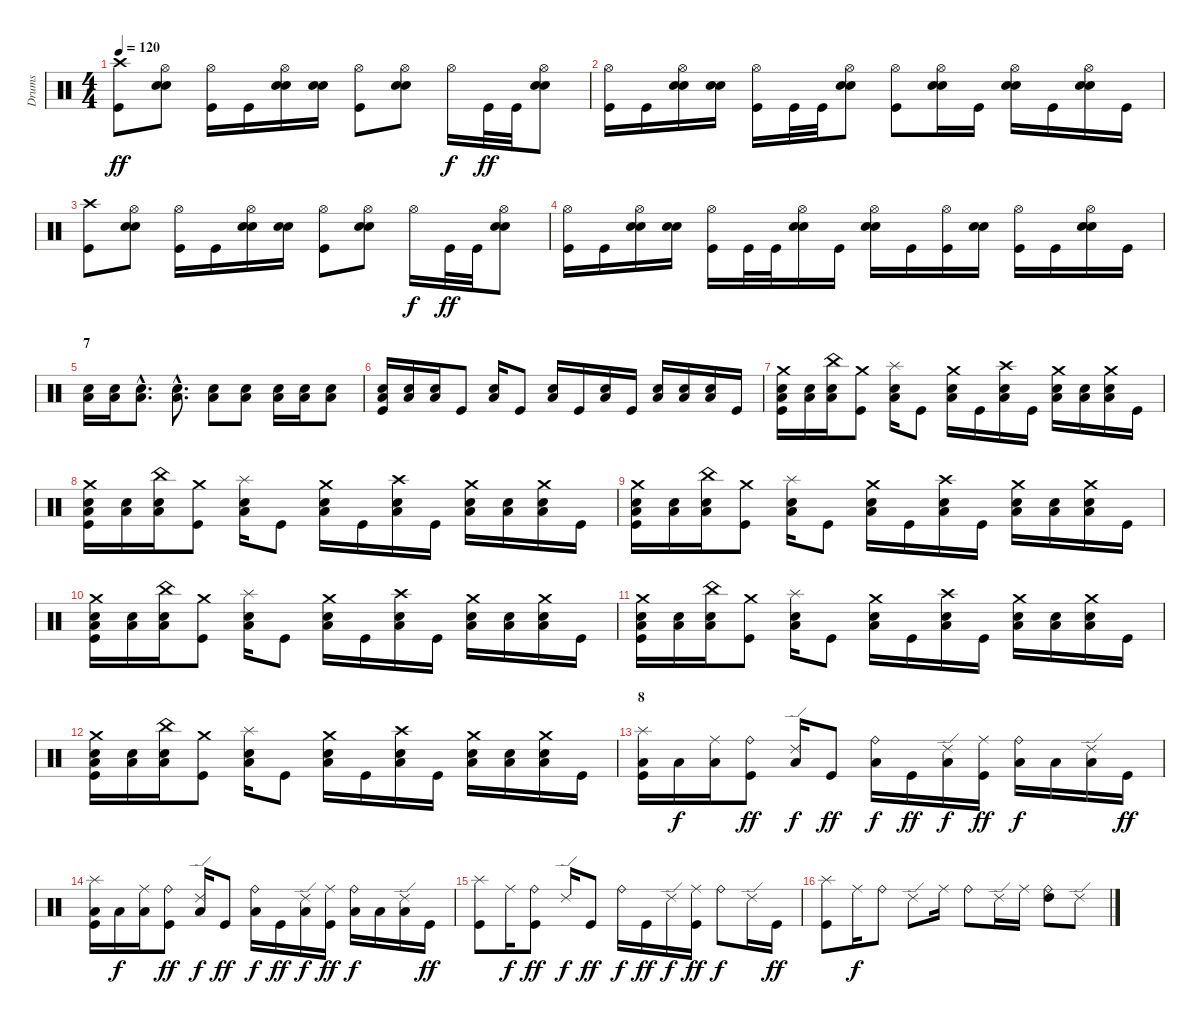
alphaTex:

\track ("Drums" "Drums") {instrument percussion}
\staff {score}
\articulation defaults
\ts (4 4)
\tempo 120
\clef neutral
\ks c
("Kick (hit)" "Crash high (hit)").8{dy ff} ("Electric Snare (hit)" "Electric Snare (hit)" "Hi-Hat (open)").8 ("Kick (hit)" "Hi-Hat (open)").16 "Kick (hit)".16 ("Electric Snare (hit)" "Electric Snare (hit)" "Hi-Hat (open)").16 ("Electric Snare (hit)" "Electric Snare (hit)").16 ("Kick (hit)" "Hi-Hat (open)").8 ("Electric Snare (hit)" "Electric Snare (hit)" "Hi-Hat (open)").8 "Hi-Hat (open)".16{dy f} "Kick (hit)".32{dy ff} "Kick (hit)".32 ("Electric Snare (hit)" "Electric Snare (hit)" "Hi-Hat (open)").8 |
("Kick (hit)" "Hi-Hat (open)").16 "Kick (hit)".16 ("Electric Snare (hit)" "Electric Snare (hit)" "Hi-Hat (open)").16 ("Electric Snare (hit)" "Electric Snare (hit)").16 ("Kick (hit)" "Hi-Hat (open)").16 "Kick (hit)".32 "Kick (hit)".32 ("Electric Snare (hit)" "Electric Snare (hit)" "Hi-Hat (open)").8 ("Kick (hit)" "Hi-Hat (open)").8 ("Electric Snare (hit)" "Electric Snare (hit)" "Hi-Hat (open)").16 "Kick (hit)".16 ("Electric Snare (hit)" "Electric Snare (hit)" "Hi-Hat (open)").16 "Kick (hit)".16 ("Electric Snare (hit)" "Electric Snare (hit)" "Hi-Hat (open)").16 "Kick (hit)".16 |
("Kick (hit)" "Crash high (hit)").8 ("Electric Snare (hit)" "Electric Snare (hit)" "Hi-Hat (open)").8 ("Kick (hit)" "Hi-Hat (open)").16 "Kick (hit)".16 ("Electric Snare (hit)" "Electric Snare (hit)" "Hi-Hat (open)").16 ("Electric Snare (hit)" "Electric Snare (hit)").16 ("Kick (hit)" "Hi-Hat (open)").8 ("Electric Snare (hit)" "Electric Snare (hit)" "Hi-Hat (open)").8 "Hi-Hat (open)".16{dy f} "Kick (hit)".32{dy ff} "Kick (hit)".32 ("Electric Snare (hit)" "Electric Snare (hit)" "Hi-Hat (open)").8 |
("Kick (hit)" "Hi-Hat (open)").16 "Kick (hit)".16 ("Electric Snare (hit)" "Electric Snare (hit)" "Hi-Hat (open)").16 ("Electric Snare (hit)" "Electric Snare (hit)").16 ("Kick (hit)" "Hi-Hat (open)").16 "Kick (hit)".32 "Kick (hit)".32 ("Electric Snare (hit)" "Electric Snare (hit)" "Hi-Hat (open)").16 "Kick (hit)".16 ("Electric Snare (hit)" "Electric Snare (hit)" "Hi-Hat (open)").16 "Kick (hit)".16 ("Kick (hit)" "Hi-Hat (open)").16 ("Electric Snare (hit)" "Electric Snare (hit)").16 ("Kick (hit)" "Hi-Hat (open)").16 "Kick (hit)".16 ("Electric Snare (hit)" "Electric Snare (hit)" "Hi-Hat (open)").16 "Kick (hit)".16 |
\section ("" "7")
("Electric Snare (hit)" "Low Floor Tom (hit)").16 ("Electric Snare (hit)" "Low Floor Tom (hit)").16 ("Electric Snare (hit)"{hac} "Low Floor Tom (hit)"{hac}).8{d} ("Electric Snare (hit)"{hac} "Low Floor Tom (hit)"{hac}).8{d} ("Electric Snare (hit)" "Low Floor Tom (hit)").8 ("Electric Snare (hit)" "Low Floor Tom (hit)").8 ("Electric Snare (hit)" "Low Floor Tom (hit)").16 ("Electric Snare (hit)" "Low Floor Tom (hit)").16 ("Electric Snare (hit)" "Low Floor Tom (hit)").8 |
("Kick (hit)" "Electric Snare (hit)" "Low Floor Tom (hit)").16 ("Electric Snare (hit)" "Low Floor Tom (hit)").16 ("Electric Snare (hit)" "Low Floor Tom (hit)").16 "Kick (hit)".8 ("Electric Snare (hit)" "Low Floor Tom (hit)").16 "Kick (hit)".8 ("Electric Snare (hit)" "Low Floor Tom (hit)").16 "Kick (hit)".16 ("Electric Snare (hit)" "Low Floor Tom (hit)").16 "Kick (hit)".16 ("Electric Snare (hit)" "Low Floor Tom (hit)").16 ("Electric Snare (hit)" "Low Floor Tom (hit)").16 ("Electric Snare (hit)" "Low Floor Tom (hit)").16 "Kick (hit)".16 |
("Kick (hit)" "Electric Snare (hit)" "Low Floor Tom (hit)" "Crash medium (hit)").16 ("Electric Snare (hit)" "Low Floor Tom (hit)").16 ("Electric Snare (hit)" "Low Floor Tom (hit)" "China (hit)").16 ("Kick (hit)" "Crash medium (hit)").8 ("Electric Snare (hit)" "Low Floor Tom (hit)" "Splash (hit)").16 "Kick (hit)".8 ("Electric Snare (hit)" "Low Floor Tom (hit)" "Crash medium (hit)").16 "Kick (hit)".16 ("Electric Snare (hit)" "Low Floor Tom (hit)" "Crash high (hit)").16 "Kick (hit)".16 ("Electric Snare (hit)" "Low Floor Tom (hit)" "Crash medium (hit)").16 ("Electric Snare (hit)" "Low Floor Tom (hit)").16 ("Electric Snare (hit)" "Low Floor Tom (hit)" "Crash medium (hit)").16 "Kick (hit)".16 |
("Kick (hit)" "Electric Snare (hit)" "Low Floor Tom (hit)" "Crash medium (hit)").16 ("Electric Snare (hit)" "Low Floor Tom (hit)").16 ("Electric Snare (hit)" "Low Floor Tom (hit)" "China (hit)").16 ("Kick (hit)" "Crash medium (hit)").8 ("Electric Snare (hit)" "Low Floor Tom (hit)" "Splash (hit)").16 "Kick (hit)".8 ("Electric Snare (hit)" "Low Floor Tom (hit)" "Crash medium (hit)").16 "Kick (hit)".16 ("Electric Snare (hit)" "Low Floor Tom (hit)" "Crash high (hit)").16 "Kick (hit)".16 ("Electric Snare (hit)" "Low Floor Tom (hit)" "Crash medium (hit)").16 ("Electric Snare (hit)" "Low Floor Tom (hit)").16 ("Electric Snare (hit)" "Low Floor Tom (hit)" "Crash medium (hit)").16 "Kick (hit)".16 |
("Kick (hit)" "Electric Snare (hit)" "Low Floor Tom (hit)" "Crash medium (hit)").16 ("Electric Snare (hit)" "Low Floor Tom (hit)").16 ("Electric Snare (hit)" "Low Floor Tom (hit)" "China (hit)").16 ("Kick (hit)" "Crash medium (hit)").8 ("Electric Snare (hit)" "Low Floor Tom (hit)" "Splash (hit)").16 "Kick (hit)".8 ("Electric Snare (hit)" "Low Floor Tom (hit)" "Crash medium (hit)").16 "Kick (hit)".16 ("Electric Snare (hit)" "Low Floor Tom (hit)" "Crash high (hit)").16 "Kick (hit)".16 ("Electric Snare (hit)" "Low Floor Tom (hit)" "Crash medium (hit)").16 ("Electric Snare (hit)" "Low Floor Tom (hit)").16 ("Electric Snare (hit)" "Low Floor Tom (hit)" "Crash medium (hit)").16 "Kick (hit)".16 |
("Kick (hit)" "Electric Snare (hit)" "Low Floor Tom (hit)" "Crash medium (hit)").16 ("Electric Snare (hit)" "Low Floor Tom (hit)").16 ("Electric Snare (hit)" "Low Floor Tom (hit)" "China (hit)").16 ("Kick (hit)" "Crash medium (hit)").8 ("Electric Snare (hit)" "Low Floor Tom (hit)" "Splash (hit)").16 "Kick (hit)".8 ("Electric Snare (hit)" "Low Floor Tom (hit)" "Crash medium (hit)").16 "Kick (hit)".16 ("Electric Snare (hit)" "Low Floor Tom (hit)" "Crash high (hit)").16 "Kick (hit)".16 ("Electric Snare (hit)" "Low Floor Tom (hit)" "Crash medium (hit)").16 ("Electric Snare (hit)" "Low Floor Tom (hit)").16 ("Electric Snare (hit)" "Low Floor Tom (hit)" "Crash medium (hit)").16 "Kick (hit)".16 |
("Kick (hit)" "Electric Snare (hit)" "Low Floor Tom (hit)" "Crash medium (hit)").16 ("Electric Snare (hit)" "Low Floor Tom (hit)").16 ("Electric Snare (hit)" "Low Floor Tom (hit)" "China (hit)").16 ("Kick (hit)" "Crash medium (hit)").8 ("Electric Snare (hit)" "Low Floor Tom (hit)" "Splash (hit)").16 "Kick (hit)".8 ("Electric Snare (hit)" "Low Floor Tom (hit)" "Crash medium (hit)").16 "Kick (hit)".16 ("Electric Snare (hit)" "Low Floor Tom (hit)" "Crash high (hit)").16 "Kick (hit)".16 ("Electric Snare (hit)" "Low Floor Tom (hit)" "Crash medium (hit)").16 ("Electric Snare (hit)" "Low Floor Tom (hit)").16 ("Electric Snare (hit)" "Low Floor Tom (hit)" "Crash medium (hit)").16 "Kick (hit)".16 |
("Kick (hit)" "Electric Snare (hit)" "Low Floor Tom (hit)" "Crash medium (hit)").16 ("Electric Snare (hit)" "Low Floor Tom (hit)").16 ("Electric Snare (hit)" "Low Floor Tom (hit)" "China (hit)").16 ("Kick (hit)" "Crash medium (hit)").8 ("Electric Snare (hit)" "Low Floor Tom (hit)" "Splash (hit)").16 "Kick (hit)".8 ("Electric Snare (hit)" "Low Floor Tom (hit)" "Crash medium (hit)").16 "Kick (hit)".16 ("Electric Snare (hit)" "Low Floor Tom (hit)" "Crash high (hit)").16 "Kick (hit)".16 ("Electric Snare (hit)" "Low Floor Tom (hit)" "Crash medium (hit)").16 ("Electric Snare (hit)" "Low Floor Tom (hit)").16 ("Electric Snare (hit)" "Low Floor Tom (hit)" "Crash medium (hit)").16 "Kick (hit)".16 |
\section ("" "8")
("Kick (hit)" "Low Floor Tom (hit)" "Splash (hit)").16 "Low Floor Tom (hit)".16{dy f} ("Low Floor Tom (hit)" "Ride (middle)").16 ("Kick (hit)" "Ride (bell)").8{dy ff} ("Low Floor Tom (hit)" "Ride (edge) 2").16{dy f} "Kick (hit)".8{dy ff} ("Low Floor Tom (hit)" "Ride (bell)").16{dy f} "Kick (hit)".16{dy ff} ("Low Floor Tom (hit)" "Ride (edge) 2").16{dy f} ("Kick (hit)" "Ride (middle)").16{dy ff} ("Low Floor Tom (hit)" "Ride (bell)").16{dy f} "Low Floor Tom (hit)".16 ("Low Floor Tom (hit)" "Ride (edge) 2").16 "Kick (hit)".16{dy ff} |
("Kick (hit)" "Low Floor Tom (hit)" "Splash (hit)").16 "Low Floor Tom (hit)".16{dy f} ("Low Floor Tom (hit)" "Ride (middle)").16 ("Kick (hit)" "Ride (bell)").8{dy ff} ("Low Floor Tom (hit)" "Ride (edge) 2").16{dy f} "Kick (hit)".8{dy ff} ("Low Floor Tom (hit)" "Ride (bell)").16{dy f} "Kick (hit)".16{dy ff} ("Low Floor Tom (hit)" "Ride (edge) 2").16{dy f} ("Kick (hit)" "Ride (middle)").16{dy ff} ("Low Floor Tom (hit)" "Ride (bell)").16{dy f} "Low Floor Tom (hit)".16 ("Low Floor Tom (hit)" "Ride (edge) 2").16 "Kick (hit)".16{dy ff} |
("Kick (hit)" "Splash (hit)").8 "Ride (middle)".16{dy f} ("Kick (hit)" "Ride (bell)").8{dy ff} "Ride (edge) 2".16{dy f} "Kick (hit)".8{dy ff} "Ride (bell)".16{dy f} "Kick (hit)".16{dy ff} "Ride (edge) 2".16{dy f} ("Kick (hit)" "Ride (middle)").16{dy ff} "Ride (bell)".8{dy f} "Ride (edge) 2".16 "Kick (hit)".16{dy ff} |
("Kick (hit)" "Splash (hit)").8 "Ride (middle)".16{dy f} "Ride (bell)".8 "Ride (edge) 2".8 "Ride (middle)".16 "Ride (bell)".8 "Ride (edge) 2".16 "Ride (middle)".16 ("High Tom (hit)" "Ride (bell)").8 "Ride (edge) 2".8
